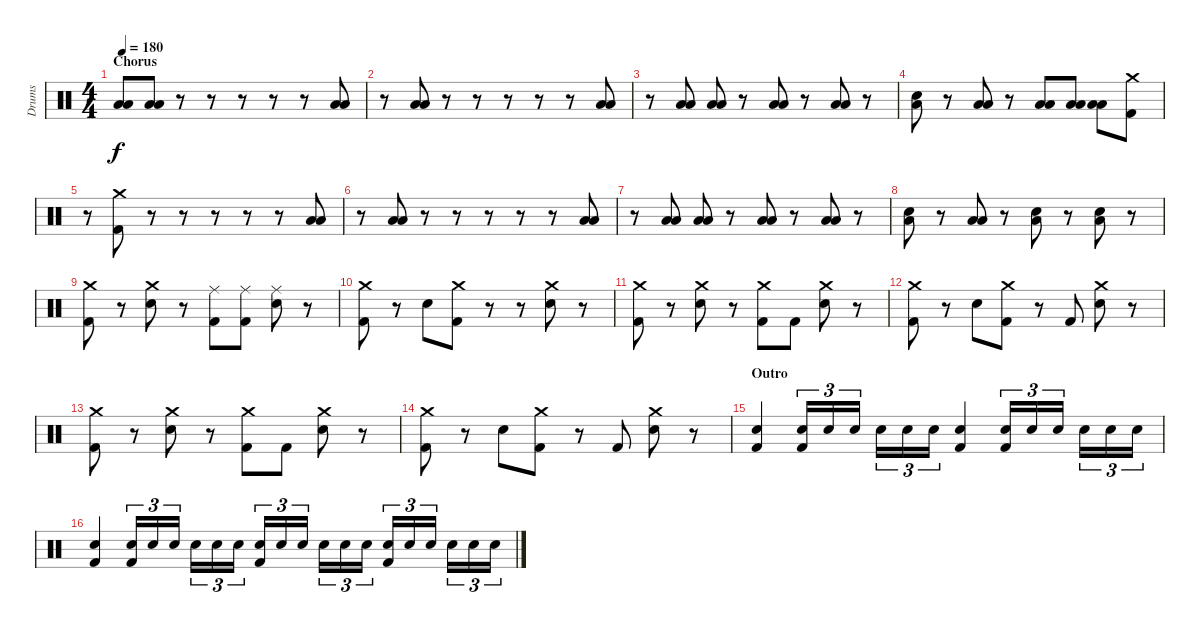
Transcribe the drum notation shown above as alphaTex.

\track ("Drums" "Drums") {instrument percussion}
\staff {score}
\articulation defaults
\ts (4 4)
\section ("" "Chorus")
\tempo 180
\clef neutral
\ks c
("Low Floor Tom (hit)" "Low Tom (hit)").8{dy f} ("Low Floor Tom (hit)" "Low Tom (hit)").8 r.8 r.8 r.8 r.8 r.8 ("Low Floor Tom (hit)" "Low Tom (hit)").8 |
r.8 ("Low Floor Tom (hit)" "Low Tom (hit)").8 r.8 r.8 r.8 r.8 r.8 ("Low Floor Tom (hit)" "Low Tom (hit)").8 |
r.8 ("Low Floor Tom (hit)" "Low Tom (hit)").8 ("Low Floor Tom (hit)" "Low Tom (hit)").8 r.8 ("Low Floor Tom (hit)" "Low Tom (hit)").8 r.8 ("Low Floor Tom (hit)" "Low Tom (hit)").8 r.8 |
("Low Floor Tom (hit)" "Electric Snare (hit)").8 r.8 ("Low Floor Tom (hit)" "Low Tom (hit)").8 r.8 ("Low Floor Tom (hit)" "Low Tom (hit)").8 ("Low Floor Tom (hit)" "Low Tom (hit)").8 ("Low Floor Tom (hit)" "Low Tom (hit)").8 ("Kick (hit) 2" "Crash medium (hit)").8 |
r.8 ("Kick (hit) 2" "Crash medium (hit)").8 r.8 r.8 r.8 r.8 r.8 ("Low Floor Tom (hit)" "Low Tom (hit)").8 |
r.8 ("Low Floor Tom (hit)" "Low Tom (hit)").8 r.8 r.8 r.8 r.8 r.8 ("Low Floor Tom (hit)" "Low Tom (hit)").8 |
r.8 ("Low Floor Tom (hit)" "Low Tom (hit)").8 ("Low Floor Tom (hit)" "Low Tom (hit)").8 r.8 ("Low Floor Tom (hit)" "Low Tom (hit)").8 r.8 ("Low Floor Tom (hit)" "Low Tom (hit)").8 r.8 |
("Low Floor Tom (hit)" "Electric Snare (hit)").8 r.8 ("Low Floor Tom (hit)" "Low Tom (hit)").8 r.8 ("Low Floor Tom (hit)" "Electric Snare (hit)").8 r.8 ("Low Floor Tom (hit)" "Electric Snare (hit)").8 r.8 |
("Kick (hit) 2" "Crash medium (hit)").8 r.8 ("Electric Snare (hit)" "Crash medium (hit)").8 r.8 ("Ride (middle)" "Kick (hit) 2").8 ("Ride (middle)" "Kick (hit) 2").8 ("Ride (middle)" "Electric Snare (hit)").8 r.8 |
("Kick (hit) 2" "Crash medium (hit)").8 r.8 "Electric Snare (hit)".8 ("Kick (hit) 2" "Crash medium (hit)").8 r.8 r.8 ("Electric Snare (hit)" "Crash medium (hit)").8 r.8 |
("Kick (hit) 2" "Crash medium (hit)").8 r.8 ("Electric Snare (hit)" "Crash medium (hit)").8 r.8 ("Kick (hit) 2" "Crash medium (hit)").8 "Kick (hit) 2".8 ("Electric Snare (hit)" "Crash medium (hit)").8 r.8 |
("Kick (hit) 2" "Crash medium (hit)").8 r.8 "Electric Snare (hit)".8 ("Kick (hit) 2" "Crash medium (hit)").8 r.8 "Kick (hit) 2".8 ("Electric Snare (hit)" "Crash medium (hit)").8 r.8 |
("Kick (hit) 2" "Crash medium (hit)").8 r.8 ("Electric Snare (hit)" "Crash medium (hit)").8 r.8 ("Kick (hit) 2" "Crash medium (hit)").8 "Kick (hit) 2".8 ("Electric Snare (hit)" "Crash medium (hit)").8 r.8 |
("Kick (hit) 2" "Crash medium (hit)").8 r.8 "Electric Snare (hit)".8 ("Kick (hit) 2" "Crash medium (hit)").8 r.8 "Kick (hit) 2".8 ("Electric Snare (hit)" "Crash medium (hit)").8 r.8 |
\section ("" "Outro")
("Kick (hit) 2" "Electric Snare (hit)").4 ("Kick (hit) 2" "Electric Snare (hit)").16{tu (3 2)} "Electric Snare (hit)".16{tu (3 2)} "Electric Snare (hit)".16{tu (3 2)} "Electric Snare (hit)".16{tu (3 2)} "Electric Snare (hit)".16{tu (3 2)} "Electric Snare (hit)".16{tu (3 2)} ("Kick (hit) 2" "Electric Snare (hit)").4 ("Kick (hit) 2" "Electric Snare (hit)").16{tu (3 2)} "Electric Snare (hit)".16{tu (3 2)} "Electric Snare (hit)".16{tu (3 2)} "Electric Snare (hit)".16{tu (3 2)} "Electric Snare (hit)".16{tu (3 2)} "Electric Snare (hit)".16{tu (3 2)} |
("Kick (hit) 2" "Electric Snare (hit)").4 ("Kick (hit) 2" "Electric Snare (hit)").16{tu (3 2)} "Electric Snare (hit)".16{tu (3 2)} "Electric Snare (hit)".16{tu (3 2)} "Electric Snare (hit)".16{tu (3 2)} "Electric Snare (hit)".16{tu (3 2)} "Electric Snare (hit)".16{tu (3 2)} ("Kick (hit) 2" "Electric Snare (hit)").16{tu (3 2)} "Electric Snare (hit)".16{tu (3 2)} "Electric Snare (hit)".16{tu (3 2)} "Electric Snare (hit)".16{tu (3 2)} "Electric Snare (hit)".16{tu (3 2)} "Electric Snare (hit)".16{tu (3 2)} ("Kick (hit) 2" "Electric Snare (hit)").16{tu (3 2)} "Electric Snare (hit)".16{tu (3 2)} "Electric Snare (hit)".16{tu (3 2)} "Electric Snare (hit)".16{tu (3 2)} "Electric Snare (hit)".16{tu (3 2)} "Electric Snare (hit)".16{tu (3 2)}
